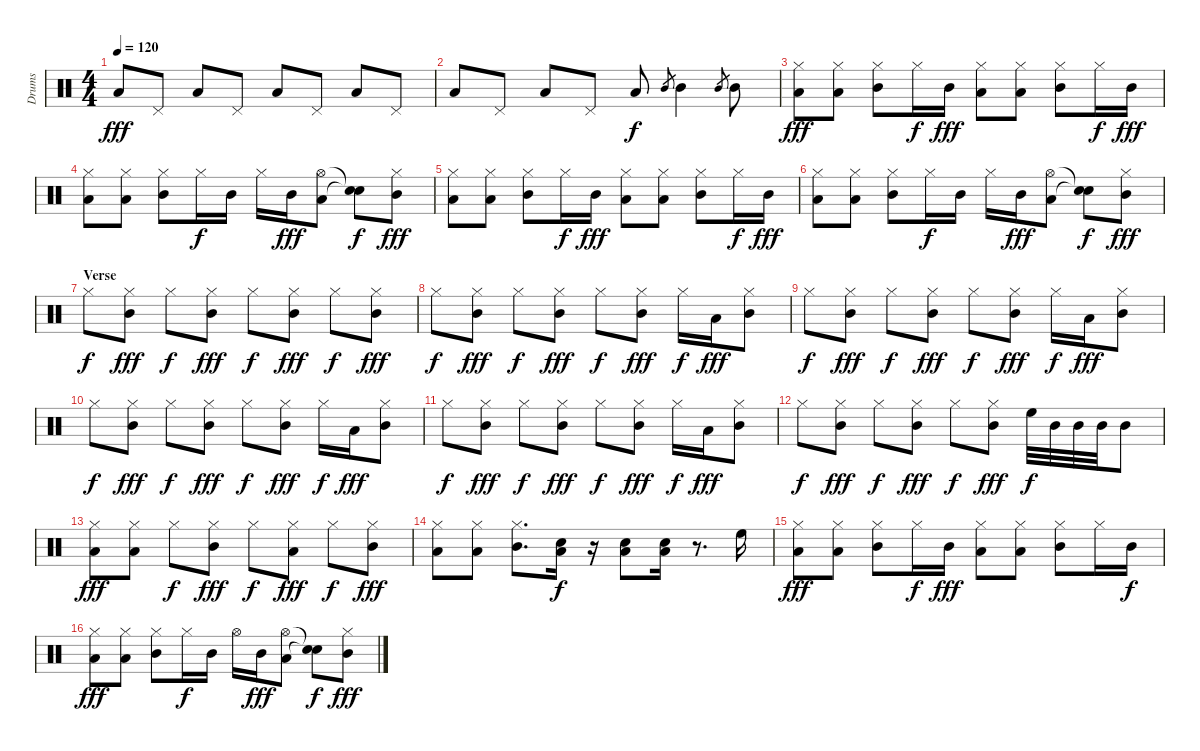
\track ("Drums" "Drums") {instrument percussion}
\staff {score}
\articulation defaults
\ts (4 4)
\tempo 120
\clef neutral
\ks c "Low Floor Tom (hit)".8{dy fff} "Pedal Hi-Hat (hit)".8 "Low Floor Tom (hit)".8 "Pedal Hi-Hat (hit)".8 "Low Floor Tom (hit)".8 "Pedal Hi-Hat (hit)".8 "Low Floor Tom (hit)".8 "Pedal Hi-Hat (hit)".8
|
"Low Floor Tom (hit)".8 "Pedal Hi-Hat (hit)".8 "Low Floor Tom (hit)".8 "Pedal Hi-Hat (hit)".8 "Low Floor Tom (hit)".8{dy f} "Mid Tom (hit)".8{gr} "Mid Tom (hit)".4 "Mid Tom (hit)".8{gr} "Mid Tom (hit)".8 |
("Hi-Hat (closed)" "Low Floor Tom (hit)").8{dy fff} ("Hi-Hat (closed)" "Low Floor Tom (hit)").8 ("Hi-Hat (closed)" "Mid Tom (hit)").8 "Hi-Hat (closed)".16{dy f} "Mid Tom (hit)".16{dy fff} ("Hi-Hat (closed)" "Low Floor Tom (hit)").8 ("Hi-Hat (closed)" "Low Floor Tom (hit)").8 ("Hi-Hat (closed)" "Mid Tom (hit)").8 "Hi-Hat (closed)".16{dy f} "Mid Tom (hit)".16{dy fff} |
("Hi-Hat (closed)" "Low Floor Tom (hit)").8 ("Hi-Hat (closed)" "Low Floor Tom (hit)").8 ("Hi-Hat (closed)" "Mid Tom (hit)").8 "Hi-Hat (closed)".16{dy f} "Mid Tom (hit)".16 "Hi-Hat (closed)".16 "Mid Tom (hit)".16{dy fff} ("Hi-Hat (open)" "Low Floor Tom (hit)").8 ("Snare (hit)"{t} "Snare (hit)"{t}).8{dy f} ("Hi-Hat (closed)" "Mid Tom (hit)").8{dy fff} |
("Hi-Hat (closed)" "Low Floor Tom (hit)").8 ("Hi-Hat (closed)" "Low Floor Tom (hit)").8 ("Hi-Hat (closed)" "Mid Tom (hit)").8 "Hi-Hat (closed)".16{dy f} "Mid Tom (hit)".16{dy fff} ("Hi-Hat (closed)" "Low Floor Tom (hit)").8 ("Hi-Hat (closed)" "Low Floor Tom (hit)").8 ("Hi-Hat (closed)" "Mid Tom (hit)").8 "Hi-Hat (closed)".16{dy f} "Mid Tom (hit)".16{dy fff} |
("Hi-Hat (closed)" "Low Floor Tom (hit)").8 ("Hi-Hat (closed)" "Low Floor Tom (hit)").8 ("Hi-Hat (closed)" "Mid Tom (hit)").8 "Hi-Hat (closed)".16{dy f} "Mid Tom (hit)".16 "Hi-Hat (closed)".16 "Mid Tom (hit)".16{dy fff} ("Hi-Hat (open)" "Low Floor Tom (hit)").8 ("Snare (hit)"{t} "Snare (hit)"{t}).8{dy f} ("Hi-Hat (closed)" "Mid Tom (hit)").8{dy fff} |
\section ("" "Verse")
"Hi-Hat (closed)".8{dy f} ("Hi-Hat (closed)" "Mid Tom (hit)").8{dy fff} "Hi-Hat (closed)".8{dy f} ("Hi-Hat (closed)" "Mid Tom (hit)").8{dy fff} "Hi-Hat (closed)".8{dy f} ("Hi-Hat (closed)" "Mid Tom (hit)").8{dy fff} "Hi-Hat (closed)".8{dy f} ("Hi-Hat (closed)" "Mid Tom (hit)").8{dy fff} |
"Hi-Hat (closed)".8{dy f} ("Hi-Hat (closed)" "Mid Tom (hit)").8{dy fff} "Hi-Hat (closed)".8{dy f} ("Hi-Hat (closed)" "Mid Tom (hit)").8{dy fff} "Hi-Hat (closed)".8{dy f} ("Hi-Hat (closed)" "Mid Tom (hit)").8{dy fff} "Hi-Hat (closed)".16{dy f} "Low Floor Tom (hit)".16{dy fff} ("Hi-Hat (closed)" "Mid Tom (hit)").8 |
"Hi-Hat (closed)".8{dy f} ("Hi-Hat (closed)" "Mid Tom (hit)").8{dy fff} "Hi-Hat (closed)".8{dy f} ("Hi-Hat (closed)" "Mid Tom (hit)").8{dy fff} "Hi-Hat (closed)".8{dy f} ("Hi-Hat (closed)" "Mid Tom (hit)").8{dy fff} "Hi-Hat (closed)".16{dy f} "Low Floor Tom (hit)".16{dy fff} ("Hi-Hat (closed)" "Mid Tom (hit)").8 |
"Hi-Hat (closed)".8{dy f} ("Hi-Hat (closed)" "Mid Tom (hit)").8{dy fff} "Hi-Hat (closed)".8{dy f} ("Hi-Hat (closed)" "Mid Tom (hit)").8{dy fff} "Hi-Hat (closed)".8{dy f} ("Hi-Hat (closed)" "Mid Tom (hit)").8{dy fff} "Hi-Hat (closed)".16{dy f} "Low Floor Tom (hit)".16{dy fff} ("Hi-Hat (closed)" "Mid Tom (hit)").8 |
"Hi-Hat (closed)".8{dy f} ("Hi-Hat (closed)" "Mid Tom (hit)").8{dy fff} "Hi-Hat (closed)".8{dy f} ("Hi-Hat (closed)" "Mid Tom (hit)").8{dy fff} "Hi-Hat (closed)".8{dy f} ("Hi-Hat (closed)" "Mid Tom (hit)").8{dy fff} "Hi-Hat (closed)".16{dy f} "Low Floor Tom (hit)".16{dy fff} ("Hi-Hat (closed)" "Mid Tom (hit)").8 |
"Hi-Hat (closed)".8{dy f} ("Hi-Hat (closed)" "Mid Tom (hit)").8{dy fff} "Hi-Hat (closed)".8{dy f} ("Hi-Hat (closed)" "Mid Tom (hit)").8{dy fff} "Hi-Hat (closed)".8{dy f} ("Hi-Hat (closed)" "Mid Tom (hit)").8{dy fff} "High Floor Tom (hit)".32{dy f} "Mid Tom (hit)".32 "Mid Tom (hit)".32 "Mid Tom (hit)".32 "Mid Tom (hit)".8 |
("Hi-Hat (closed)" "Low Floor Tom (hit)").8{dy fff} ("Hi-Hat (closed)" "Low Floor Tom (hit)").8 "Hi-Hat (closed)".8{dy f} ("Hi-Hat (closed)" "Mid Tom (hit)").8{dy fff} "Hi-Hat (closed)".8{dy f} ("Hi-Hat (closed)" "Low Floor Tom (hit)").8{dy fff} "Hi-Hat (closed)".8{dy f} ("Hi-Hat (closed)" "Mid Tom (hit)").8{dy fff} |
("Hi-Hat (closed)" "Low Floor Tom (hit)").8 ("Hi-Hat (closed)" "Low Floor Tom (hit)").8 ("Hi-Hat (closed)" "Mid Tom (hit)").8{d} ("Low Tom (hit)" "Snare (hit) 2").16{dy f} r.16 ("Low Tom (hit)" "Snare (hit) 2").8 ("Low Tom (hit)" "Snare (hit) 2").16 r.8{d} "High Floor Tom (hit)".16 |
("Hi-Hat (closed)" "Low Floor Tom (hit)").8{dy fff} ("Hi-Hat (closed)" "Low Floor Tom (hit)").8 ("Hi-Hat (closed)" "Mid Tom (hit)").8 "Hi-Hat (closed)".16{dy f} "Mid Tom (hit)".16{dy fff} ("Hi-Hat (closed)" "Low Floor Tom (hit)").8 ("Hi-Hat (closed)" "Low Floor Tom (hit)").8 ("Hi-Hat (closed)" "Mid Tom (hit)").8 "Hi-Hat (closed)".16 "Mid Tom (hit)".16{dy f} |
("Hi-Hat (closed)" "Low Floor Tom (hit)").8{dy fff} ("Hi-Hat (closed)" "Low Floor Tom (hit)").8 ("Hi-Hat (closed)" "Mid Tom (hit)").8 "Hi-Hat (closed)".16{dy f} "Mid Tom (hit)".16 "Hi-Hat (open)".16 "Mid Tom (hit)".16{dy fff} ("Hi-Hat (open)" "Low Floor Tom (hit)").8 ("Snare (hit)"{t} "Snare (hit)"{t}).8{dy f} ("Hi-Hat (closed)" "Mid Tom (hit)").8{dy fff}
